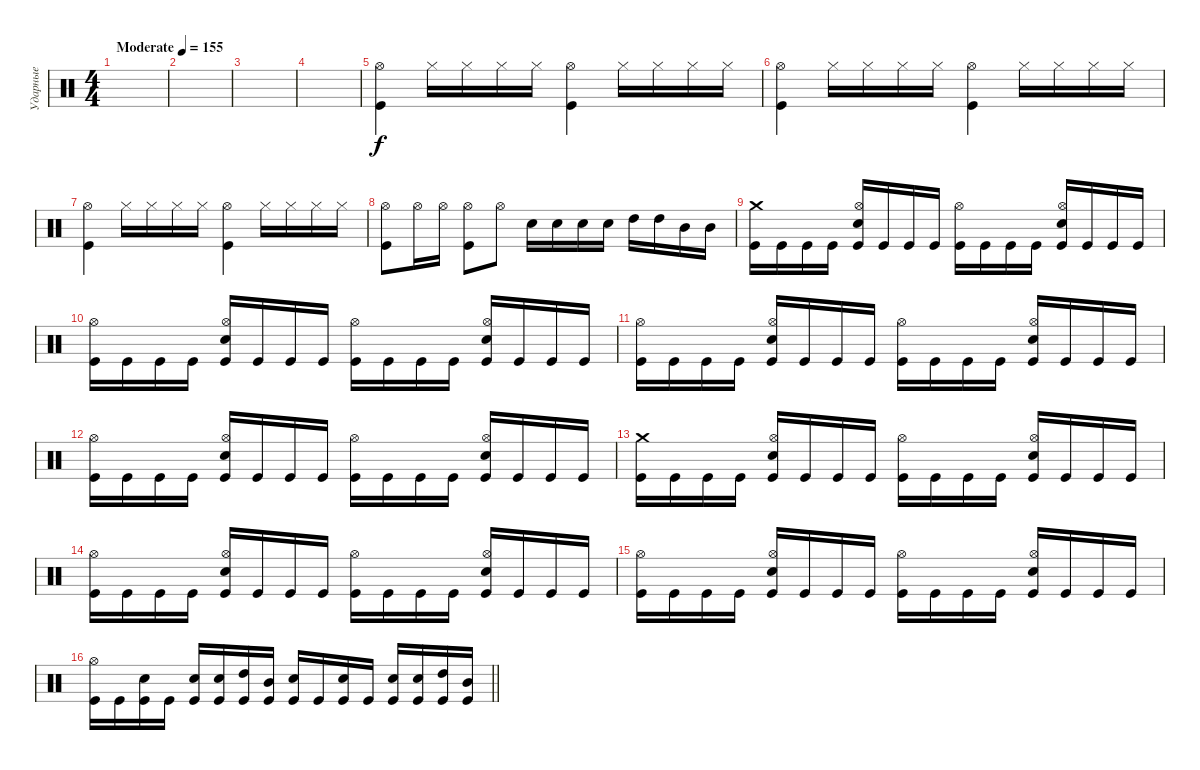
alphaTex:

\track ("Ударные" "Ударные") {instrument percussion}
\staff {score}
\articulation defaults
\ts (4 4)
\tempo (155 "Moderate")
\clef neutral
\ks c
|
|
|
|
("Kick (hit)" "Hi-Hat (open)").4 "Hi-Hat (closed)".16 "Hi-Hat (closed)".16 "Hi-Hat (closed)".16 "Hi-Hat (closed)".16 ("Kick (hit)" "Hi-Hat (open)").4 "Hi-Hat (closed)".16 "Hi-Hat (closed)".16 "Hi-Hat (closed)".16 "Hi-Hat (closed)".16 |
("Kick (hit)" "Hi-Hat (open)").4 "Hi-Hat (closed)".16 "Hi-Hat (closed)".16 "Hi-Hat (closed)".16 "Hi-Hat (closed)".16 ("Kick (hit)" "Hi-Hat (open)").4 "Hi-Hat (closed)".16 "Hi-Hat (closed)".16 "Hi-Hat (closed)".16 "Hi-Hat (closed)".16 |
("Kick (hit)" "Hi-Hat (open)").4 "Hi-Hat (closed)".16 "Hi-Hat (closed)".16 "Hi-Hat (closed)".16 "Hi-Hat (closed)".16 ("Kick (hit)" "Hi-Hat (open)").4 "Hi-Hat (closed)".16 "Hi-Hat (closed)".16 "Hi-Hat (closed)".16 "Hi-Hat (closed)".16 |
("Kick (hit)" "Hi-Hat (open)").8 "Hi-Hat (open)".16 "Hi-Hat (open)".16 ("Kick (hit)" "Hi-Hat (open)").8 "Hi-Hat (open)".8 "Snare (hit) 2".16 "Snare (hit) 2".16 "Snare (hit) 2".16 "Snare (hit) 2".16 "High Tom (hit)".16 "High Tom (hit)".16 "Mid Tom (hit)".16 "Mid Tom (hit)".16 |
("Kick (hit)" "Crash medium (hit)").16 "Kick (hit)".16 "Kick (hit)".16 "Kick (hit)".16 ("Kick (hit)" "Snare (hit) 2" "Hi-Hat (open)").16 "Kick (hit)".16 "Kick (hit)".16 "Kick (hit)".16 ("Kick (hit)" "Hi-Hat (open)").16 "Kick (hit)".16 "Kick (hit)".16 "Kick (hit)".16 ("Kick (hit)" "Snare (hit) 2" "Hi-Hat (open)").16 "Kick (hit)".16 "Kick (hit)".16 "Kick (hit)".16 |
("Kick (hit)" "Hi-Hat (open)").16 "Kick (hit)".16 "Kick (hit)".16 "Kick (hit)".16 ("Kick (hit)" "Snare (hit) 2" "Hi-Hat (open)").16 "Kick (hit)".16 "Kick (hit)".16 "Kick (hit)".16 ("Kick (hit)" "Hi-Hat (open)").16 "Kick (hit)".16 "Kick (hit)".16 "Kick (hit)".16 ("Kick (hit)" "Snare (hit) 2" "Hi-Hat (open)").16 "Kick (hit)".16 "Kick (hit)".16 "Kick (hit)".16 |
("Kick (hit)" "Hi-Hat (open)").16 "Kick (hit)".16 "Kick (hit)".16 "Kick (hit)".16 ("Kick (hit)" "Snare (hit) 2" "Hi-Hat (open)").16 "Kick (hit)".16 "Kick (hit)".16 "Kick (hit)".16 ("Kick (hit)" "Hi-Hat (open)").16 "Kick (hit)".16 "Kick (hit)".16 "Kick (hit)".16 ("Kick (hit)" "Snare (hit) 2" "Hi-Hat (open)").16 "Kick (hit)".16 "Kick (hit)".16 "Kick (hit)".16 |
("Kick (hit)" "Hi-Hat (open)").16 "Kick (hit)".16 "Kick (hit)".16 "Kick (hit)".16 ("Kick (hit)" "Snare (hit) 2" "Hi-Hat (open)").16 "Kick (hit)".16 "Kick (hit)".16 "Kick (hit)".16 ("Kick (hit)" "Hi-Hat (open)").16 "Kick (hit)".16 "Kick (hit)".16 "Kick (hit)".16 ("Kick (hit)" "Snare (hit) 2" "Hi-Hat (open)").16 "Kick (hit)".16 "Kick (hit)".16 "Kick (hit)".16 |
("Kick (hit)" "Crash medium (hit)").16 "Kick (hit)".16 "Kick (hit)".16 "Kick (hit)".16 ("Kick (hit)" "Snare (hit) 2" "Hi-Hat (open)").16 "Kick (hit)".16 "Kick (hit)".16 "Kick (hit)".16 ("Kick (hit)" "Hi-Hat (open)").16 "Kick (hit)".16 "Kick (hit)".16 "Kick (hit)".16 ("Kick (hit)" "Snare (hit) 2" "Hi-Hat (open)").16 "Kick (hit)".16 "Kick (hit)".16 "Kick (hit)".16 |
("Kick (hit)" "Hi-Hat (open)").16 "Kick (hit)".16 "Kick (hit)".16 "Kick (hit)".16 ("Kick (hit)" "Snare (hit) 2" "Hi-Hat (open)").16 "Kick (hit)".16 "Kick (hit)".16 "Kick (hit)".16 ("Kick (hit)" "Hi-Hat (open)").16 "Kick (hit)".16 "Kick (hit)".16 "Kick (hit)".16 ("Kick (hit)" "Snare (hit) 2" "Hi-Hat (open)").16 "Kick (hit)".16 "Kick (hit)".16 "Kick (hit)".16 |
("Kick (hit)" "Hi-Hat (open)").16 "Kick (hit)".16 "Kick (hit)".16 "Kick (hit)".16 ("Kick (hit)" "Snare (hit) 2" "Hi-Hat (open)").16 "Kick (hit)".16 "Kick (hit)".16 "Kick (hit)".16 ("Kick (hit)" "Hi-Hat (open)").16 "Kick (hit)".16 "Kick (hit)".16 "Kick (hit)".16 ("Kick (hit)" "Snare (hit) 2" "Hi-Hat (open)").16 "Kick (hit)".16 "Kick (hit)".16 "Kick (hit)".16 |
\barLineRight lightlight
("Kick (hit)" "Hi-Hat (open)").16 "Kick (hit)".16 ("Kick (hit)" "Snare (hit) 2").16 "Kick (hit)".16 ("Kick (hit)" "Snare (hit) 2").16 ("Kick (hit)" "Snare (hit) 2").16 ("Kick (hit)" "High Tom (hit)").16 ("Kick (hit)" "Mid Tom (hit)").16 ("Kick (hit)" "Snare (hit) 2").16 "Kick (hit)".16 ("Kick (hit)" "Snare (hit) 2").16 "Kick (hit)".16 ("Kick (hit)" "Snare (hit) 2").16 ("Kick (hit)" "Snare (hit) 2").16 ("Kick (hit)" "High Tom (hit)").16 ("Kick (hit)" "Mid Tom (hit)").16
